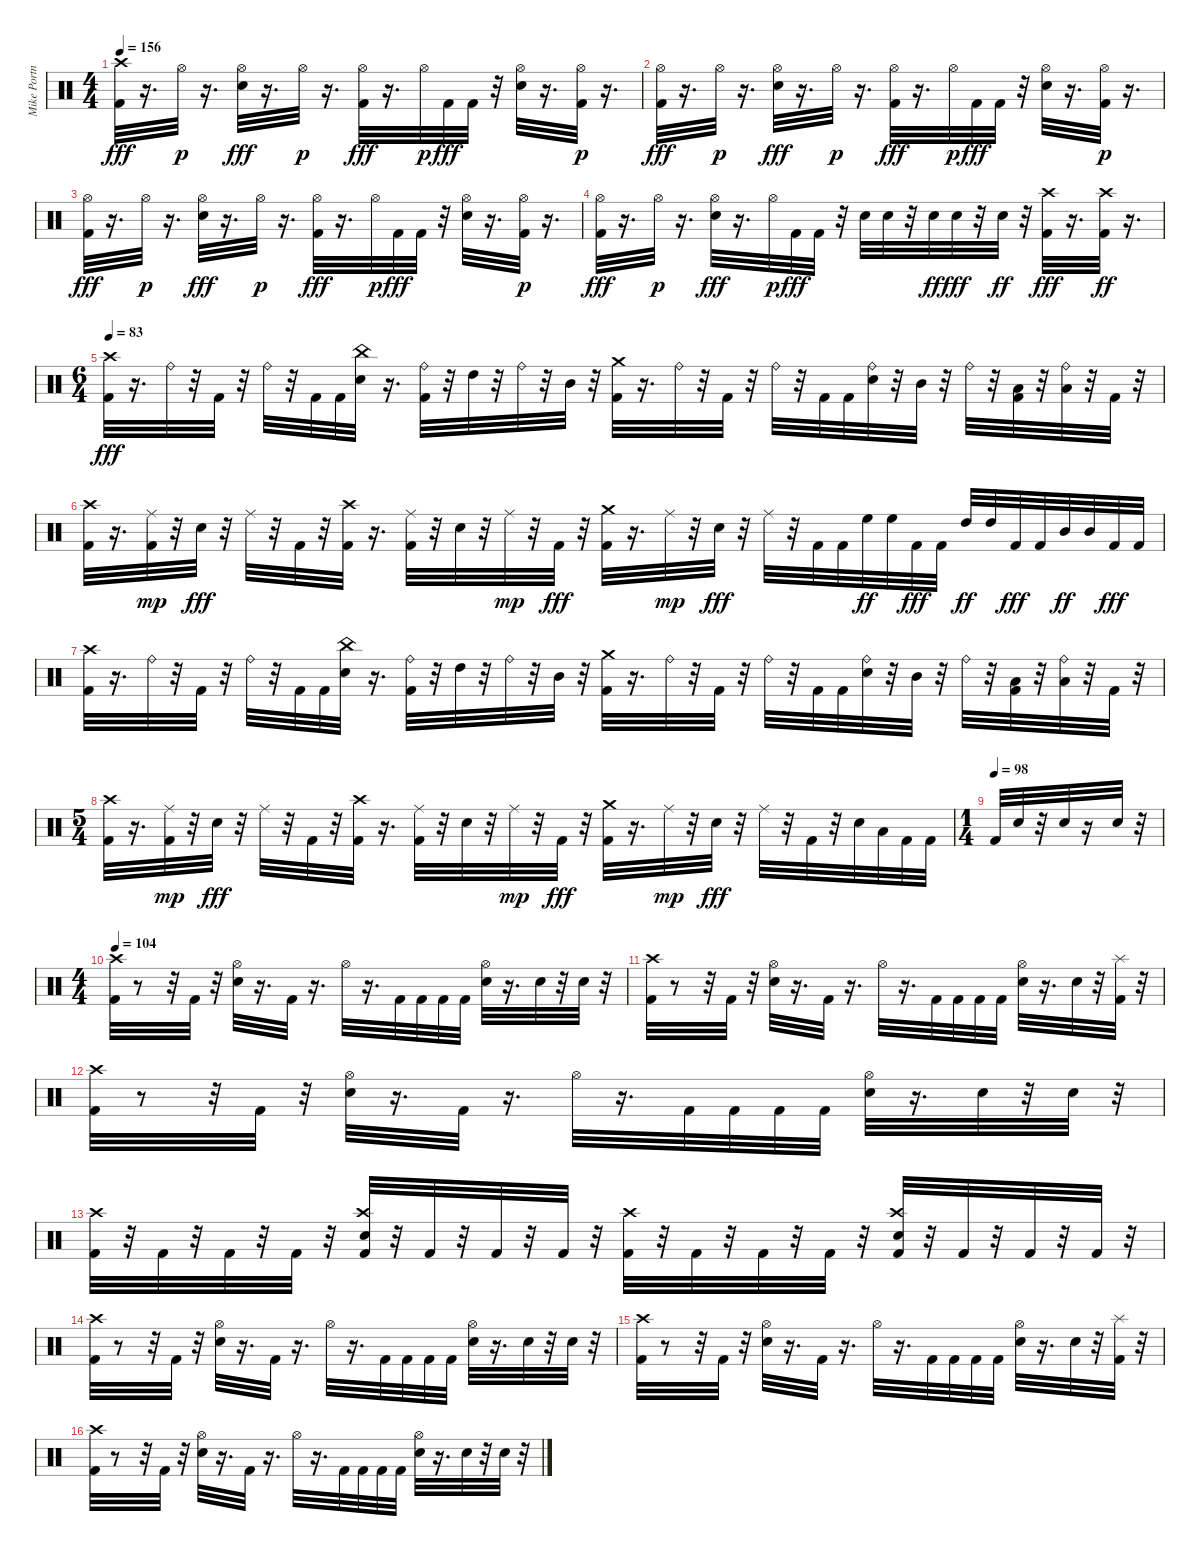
\track ("Mike Portnoy" "Mike Portn") {instrument percussion}
\staff {score}
\articulation defaults
\ts (4 4)
\tempo 156
\clef neutral
\ks c
("Kick (hit) 2" "Crash high (hit)").32{dy fff} r.16{d} "Hi-Hat (open)".32{dy p} r.16{d} ("Snare (hit) 2" "Hi-Hat (open)").32{dy fff} r.16{d} "Hi-Hat (open)".32{dy p} r.16{d} ("Kick (hit) 2" "Hi-Hat (open)").32{dy fff} r.16{d} "Hi-Hat (open)".32{dy p} "Kick (hit) 2".32{dy fff} "Kick (hit) 2".32 r.32 ("Snare (hit) 2" "Hi-Hat (open)").32 r.16{d} ("Kick (hit) 2" "Hi-Hat (open)").32{dy p} r.16{d} |
("Kick (hit) 2" "Hi-Hat (open)").32{dy fff} r.16{d} "Hi-Hat (open)".32{dy p} r.16{d} ("Snare (hit) 2" "Hi-Hat (open)").32{dy fff} r.16{d} "Hi-Hat (open)".32{dy p} r.16{d} ("Kick (hit) 2" "Hi-Hat (open)").32{dy fff} r.16{d} "Hi-Hat (open)".32{dy p} "Kick (hit) 2".32{dy fff} "Kick (hit) 2".32 r.32 ("Snare (hit) 2" "Hi-Hat (open)").32 r.16{d} ("Kick (hit) 2" "Hi-Hat (open)").32{dy p} r.16{d} |
("Kick (hit) 2" "Hi-Hat (open)").32{dy fff} r.16{d} "Hi-Hat (open)".32{dy p} r.16{d} ("Snare (hit) 2" "Hi-Hat (open)").32{dy fff} r.16{d} "Hi-Hat (open)".32{dy p} r.16{d} ("Kick (hit) 2" "Hi-Hat (open)").32{dy fff} r.16{d} "Hi-Hat (open)".32{dy p} "Kick (hit) 2".32{dy fff} "Kick (hit) 2".32 r.32 ("Snare (hit) 2" "Hi-Hat (open)").32 r.16{d} ("Kick (hit) 2" "Hi-Hat (open)").32{dy p} r.16{d} |
("Kick (hit) 2" "Hi-Hat (open)").32{dy fff} r.16{d} "Hi-Hat (open)".32{dy p} r.16{d} ("Snare (hit) 2" "Hi-Hat (open)").32{dy fff} r.16{d} "Hi-Hat (open)".32{dy p} "Kick (hit) 2".32{dy fff} "Kick (hit) 2".32 r.32 "Snare (hit) 2".32 "Snare (hit) 2".32 r.32 "Snare (hit) 2".32{dy ff} "Snare (hit) 2".32{dy fff} r.32 "Snare (hit) 2".32{dy ff} r.32 ("Kick (hit) 2" "Crash high (hit)").32{dy fff} r.16{d} ("Kick (hit) 2" "Crash high (hit)").32{dy ff} r.16{d} |
\ts (6 4)
\tempo 83
("Kick (hit) 2" "Crash high (hit)").32{dy fff} r.16{d} "Ride (bell)".32 r.32 "Kick (hit) 2".32 r.32 "Ride (bell)".32 r.32 "Kick (hit) 2".32 "Kick (hit) 2".32 ("Snare (hit) 2" "China (hit)").32 r.16{d} ("Kick (hit) 2" "Ride (bell)").32 r.32 "High Tom (hit)".32 r.32 "Ride (bell)".32 r.32 "Mid Tom (hit)".32 r.32 ("Kick (hit) 2" "Crash medium (hit)").32 r.16{d} "Ride (bell)".32 r.32 "Kick (hit) 2".32 r.32 "Ride (bell)".32 r.32 "Kick (hit) 2".32 "Kick (hit) 2".32 ("Snare (hit) 2" "Ride (bell)").32 r.32 "Mid Tom (hit)".32 r.32 "Ride (bell)".32 r.32 ("Kick (hit) 2" "Low Tom (hit)").32 r.32 ("Low Tom (hit)" "Ride (bell)").32 r.32 "Kick (hit) 2".32 r.32 |
("Kick (hit) 2" "Crash high (hit)").32 r.16{d} ("Kick (hit) 2" "Ride (middle)").32{dy mp} r.32 "Snare (hit) 2".32{dy fff} r.32 "Ride (middle)".32 r.32 "Kick (hit) 2".32 r.32 ("Kick (hit) 2" "Crash high (hit)").32 r.16{d} ("Kick (hit) 2" "Ride (middle)").32 r.32 "Snare (hit) 2".32 r.32 "Ride (middle)".32{dy mp} r.32 "Kick (hit) 2".32{dy fff} r.32 ("Kick (hit) 2" "Crash medium (hit)").32 r.16{d} "Ride (middle)".32{dy mp} r.32 "Snare (hit) 2".32{dy fff} r.32 "Ride (middle)".32 r.32 "Kick (hit) 2".32 "Kick (hit) 2".32 "High Floor Tom (hit)".32{dy ff} "High Floor Tom (hit)".32 "Kick (hit) 2".32{dy fff} "Kick (hit) 2".32 "High Tom (hit)".32{dy ff} "High Tom (hit)".32 "Kick (hit) 2".32{dy fff} "Kick (hit) 2".32 "Mid Tom (hit)".32{dy ff} "Mid Tom (hit)".32 "Kick (hit) 2".32{dy fff} "Kick (hit) 2".32 |
("Kick (hit) 2" "Crash high (hit)").32 r.16{d} "Ride (bell)".32 r.32 "Kick (hit) 2".32 r.32 "Ride (bell)".32 r.32 "Kick (hit) 2".32 "Kick (hit) 2".32 ("Snare (hit) 2" "China (hit)").32 r.16{d} ("Kick (hit) 2" "Ride (bell)").32 r.32 "High Tom (hit)".32 r.32 "Ride (bell)".32 r.32 "Mid Tom (hit)".32 r.32 ("Kick (hit) 2" "Crash medium (hit)").32 r.16{d} "Ride (bell)".32 r.32 "Kick (hit) 2".32 r.32 "Ride (bell)".32 r.32 "Kick (hit) 2".32 "Kick (hit) 2".32 ("Snare (hit) 2" "Ride (bell)").32 r.32 "Mid Tom (hit)".32 r.32 "Ride (bell)".32 r.32 ("Kick (hit) 2" "Low Tom (hit)").32 r.32 ("Low Tom (hit)" "Ride (bell)").32 r.32 "Kick (hit) 2".32 r.32 |
\ts (5 4)
("Kick (hit) 2" "Crash high (hit)").32 r.16{d} ("Kick (hit) 2" "Ride (middle)").32{dy mp} r.32 "Snare (hit) 2".32{dy fff} r.32 "Ride (middle)".32 r.32 "Kick (hit) 2".32 r.32 ("Kick (hit) 2" "Crash high (hit)").32 r.16{d} ("Kick (hit) 2" "Ride (middle)").32 r.32 "Snare (hit) 2".32 r.32 "Ride (middle)".32{dy mp} r.32 "Kick (hit) 2".32{dy fff} r.32 ("Kick (hit) 2" "Crash medium (hit)").32 r.16{d} "Ride (middle)".32{dy mp} r.32 "Snare (hit) 2".32{dy fff} r.32 "Ride (middle)".32 r.32 "Kick (hit) 2".32 r.32 "Snare (hit) 2".32 "Low Tom (hit)".32 "Kick (hit) 2".32 "Kick (hit) 2".32 |
\ts (1 4)
\tempo (98)
"Kick (hit) 2".32 "Snare (hit) 2".32 r.32 "Snare (hit) 2".32 r.16 "Snare (hit) 2".32 r.32 |
\ts (4 4)
\tempo 104
("Kick (hit) 2" "Crash high (hit)").32 r.8 r.32 "Kick (hit) 2".32 r.32 ("Hi-Hat (open)" "Snare (hit) 2").32 r.16{d} "Kick (hit) 2".32 r.16{d} "Hi-Hat (open)".32 r.16{d} "Kick (hit) 2".32 "Kick (hit) 2".32 "Kick (hit) 2".32 "Kick (hit) 2".32 ("Hi-Hat (open)" "Snare (hit) 2").32 r.16{d} "Snare (hit) 2".32 r.32 "Snare (hit) 2".32 r.32 |
("Kick (hit) 2" "Crash high (hit)").32 r.8 r.32 "Kick (hit) 2".32 r.32 ("Hi-Hat (open)" "Snare (hit) 2").32 r.16{d} "Kick (hit) 2".32 r.16{d} "Hi-Hat (open)".32 r.16{d} "Kick (hit) 2".32 "Kick (hit) 2".32 "Kick (hit) 2".32 "Kick (hit) 2".32 ("Hi-Hat (open)" "Snare (hit) 2").32 r.16{d} "Snare (hit) 2".32 r.32 ("Kick (hit) 2" "Splash (hit)").32 r.32 |
("Kick (hit) 2" "Crash high (hit)").32 r.8 r.32 "Kick (hit) 2".32 r.32 ("Hi-Hat (open)" "Snare (hit) 2").32 r.16{d} "Kick (hit) 2".32 r.16{d} "Hi-Hat (open)".32 r.16{d} "Kick (hit) 2".32 "Kick (hit) 2".32 "Kick (hit) 2".32 "Kick (hit) 2".32 ("Hi-Hat (open)" "Snare (hit) 2").32 r.16{d} "Snare (hit) 2".32 r.32 "Snare (hit) 2".32 r.32 |
("Kick (hit) 2" "Crash high (hit)").32 r.32 "Kick (hit) 2".32 r.32 "Kick (hit) 2".32 r.32 "Kick (hit) 2".32 r.32 ("Kick (hit) 2" "Crash high (hit)" "Snare (hit) 2").32 r.32 "Kick (hit) 2".32 r.32 "Kick (hit) 2".32 r.32 "Kick (hit) 2".32 r.32 ("Kick (hit) 2" "Crash high (hit)").32 r.32 "Kick (hit) 2".32 r.32 "Kick (hit) 2".32 r.32 "Kick (hit) 2".32 r.32 ("Kick (hit) 2" "Crash high (hit)" "Snare (hit) 2").32 r.32 "Kick (hit) 2".32 r.32 "Kick (hit) 2".32 r.32 "Kick (hit) 2".32 r.32 |
("Kick (hit) 2" "Crash high (hit)").32 r.8 r.32 "Kick (hit) 2".32 r.32 ("Hi-Hat (open)" "Snare (hit) 2").32 r.16{d} "Kick (hit) 2".32 r.16{d} "Hi-Hat (open)".32 r.16{d} "Kick (hit) 2".32 "Kick (hit) 2".32 "Kick (hit) 2".32 "Kick (hit) 2".32 ("Hi-Hat (open)" "Snare (hit) 2").32 r.16{d} "Snare (hit) 2".32 r.32 "Snare (hit) 2".32 r.32 |
("Kick (hit) 2" "Crash high (hit)").32 r.8 r.32 "Kick (hit) 2".32 r.32 ("Hi-Hat (open)" "Snare (hit) 2").32 r.16{d} "Kick (hit) 2".32 r.16{d} "Hi-Hat (open)".32 r.16{d} "Kick (hit) 2".32 "Kick (hit) 2".32 "Kick (hit) 2".32 "Kick (hit) 2".32 ("Hi-Hat (open)" "Snare (hit) 2").32 r.16{d} "Snare (hit) 2".32 r.32 ("Kick (hit) 2" "Splash (hit)").32 r.32 |
("Kick (hit) 2" "Crash high (hit)").32 r.8 r.32 "Kick (hit) 2".32 r.32 ("Hi-Hat (open)" "Snare (hit) 2").32 r.16{d} "Kick (hit) 2".32 r.16{d} "Hi-Hat (open)".32 r.16{d} "Kick (hit) 2".32 "Kick (hit) 2".32 "Kick (hit) 2".32 "Kick (hit) 2".32 ("Hi-Hat (open)" "Snare (hit) 2").32 r.16{d} "Snare (hit) 2".32 r.32 "Snare (hit) 2".32 r.32
